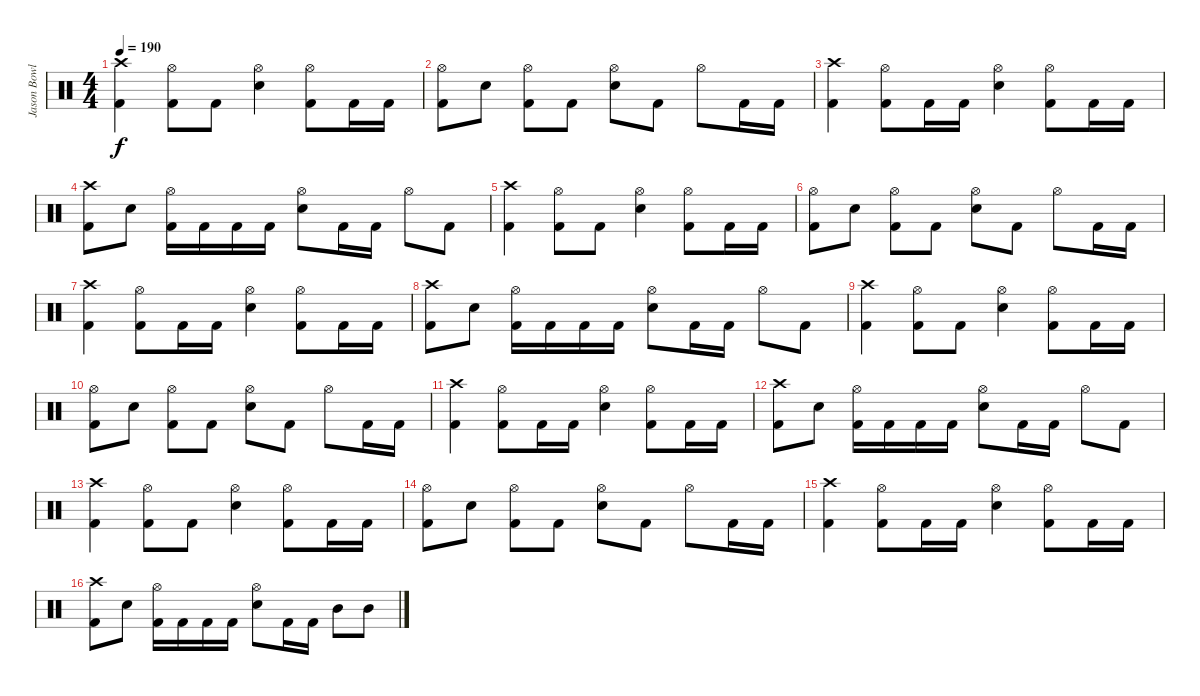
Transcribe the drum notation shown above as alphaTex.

\track ("Jason Bowld" "Jason Bowl") {instrument percussion}
\staff {score}
\articulation defaults
\ts (4 4)
\tempo 190
\clef neutral
\ks c
("Crash high (hit)" "Kick (hit) 2").4{dy f} ("Hi-Hat (open)" "Kick (hit) 2").8 "Kick (hit) 2".8 ("Hi-Hat (open)" "Snare (hit) 2").4 ("Hi-Hat (open)" "Kick (hit) 2").8 "Kick (hit) 2".16 "Kick (hit) 2".16 |
("Hi-Hat (open)" "Kick (hit) 2").8 "Snare (hit) 2".8 ("Hi-Hat (open)" "Kick (hit) 2").8 "Kick (hit) 2".8 ("Hi-Hat (open)" "Snare (hit) 2").8 "Kick (hit) 2".8 "Hi-Hat (open)".8 "Kick (hit) 2".16 "Kick (hit) 2".16 |
("Crash high (hit)" "Kick (hit) 2").4 ("Hi-Hat (open)" "Kick (hit) 2").8 "Kick (hit) 2".16 "Kick (hit) 2".16 ("Hi-Hat (open)" "Snare (hit) 2").4 ("Hi-Hat (open)" "Kick (hit) 2").8 "Kick (hit) 2".16 "Kick (hit) 2".16 |
("Crash high (hit)" "Kick (hit) 2").8 "Snare (hit) 2".8 ("Hi-Hat (open)" "Kick (hit) 2").16 "Kick (hit) 2".16 "Kick (hit) 2".16 "Kick (hit) 2".16 ("Hi-Hat (open)" "Snare (hit) 2").8 "Kick (hit) 2".16 "Kick (hit) 2".16 "Hi-Hat (open)".8 "Kick (hit) 2".8 |
("Crash high (hit)" "Kick (hit) 2").4 ("Hi-Hat (open)" "Kick (hit) 2").8 "Kick (hit) 2".8 ("Hi-Hat (open)" "Snare (hit) 2").4 ("Hi-Hat (open)" "Kick (hit) 2").8 "Kick (hit) 2".16 "Kick (hit) 2".16 |
("Hi-Hat (open)" "Kick (hit) 2").8 "Snare (hit) 2".8 ("Hi-Hat (open)" "Kick (hit) 2").8 "Kick (hit) 2".8 ("Hi-Hat (open)" "Snare (hit) 2").8 "Kick (hit) 2".8 "Hi-Hat (open)".8 "Kick (hit) 2".16 "Kick (hit) 2".16 |
("Crash high (hit)" "Kick (hit) 2").4 ("Hi-Hat (open)" "Kick (hit) 2").8 "Kick (hit) 2".16 "Kick (hit) 2".16 ("Hi-Hat (open)" "Snare (hit) 2").4 ("Hi-Hat (open)" "Kick (hit) 2").8 "Kick (hit) 2".16 "Kick (hit) 2".16 |
("Crash high (hit)" "Kick (hit) 2").8 "Snare (hit) 2".8 ("Hi-Hat (open)" "Kick (hit) 2").16 "Kick (hit) 2".16 "Kick (hit) 2".16 "Kick (hit) 2".16 ("Hi-Hat (open)" "Snare (hit) 2").8 "Kick (hit) 2".16 "Kick (hit) 2".16 "Hi-Hat (open)".8 "Kick (hit) 2".8 |
("Crash high (hit)" "Kick (hit) 2").4 ("Hi-Hat (open)" "Kick (hit) 2").8 "Kick (hit) 2".8 ("Hi-Hat (open)" "Snare (hit) 2").4 ("Hi-Hat (open)" "Kick (hit) 2").8 "Kick (hit) 2".16 "Kick (hit) 2".16 |
("Hi-Hat (open)" "Kick (hit) 2").8 "Snare (hit) 2".8 ("Hi-Hat (open)" "Kick (hit) 2").8 "Kick (hit) 2".8 ("Hi-Hat (open)" "Snare (hit) 2").8 "Kick (hit) 2".8 "Hi-Hat (open)".8 "Kick (hit) 2".16 "Kick (hit) 2".16 |
("Crash high (hit)" "Kick (hit) 2").4 ("Hi-Hat (open)" "Kick (hit) 2").8 "Kick (hit) 2".16 "Kick (hit) 2".16 ("Hi-Hat (open)" "Snare (hit) 2").4 ("Hi-Hat (open)" "Kick (hit) 2").8 "Kick (hit) 2".16 "Kick (hit) 2".16 |
("Crash high (hit)" "Kick (hit) 2").8 "Snare (hit) 2".8 ("Hi-Hat (open)" "Kick (hit) 2").16 "Kick (hit) 2".16 "Kick (hit) 2".16 "Kick (hit) 2".16 ("Hi-Hat (open)" "Snare (hit) 2").8 "Kick (hit) 2".16 "Kick (hit) 2".16 "Hi-Hat (open)".8 "Kick (hit) 2".8 |
("Crash high (hit)" "Kick (hit) 2").4 ("Hi-Hat (open)" "Kick (hit) 2").8 "Kick (hit) 2".8 ("Hi-Hat (open)" "Snare (hit) 2").4 ("Hi-Hat (open)" "Kick (hit) 2").8 "Kick (hit) 2".16 "Kick (hit) 2".16 |
("Hi-Hat (open)" "Kick (hit) 2").8 "Snare (hit) 2".8 ("Hi-Hat (open)" "Kick (hit) 2").8 "Kick (hit) 2".8 ("Hi-Hat (open)" "Snare (hit) 2").8 "Kick (hit) 2".8 "Hi-Hat (open)".8 "Kick (hit) 2".16 "Kick (hit) 2".16 |
("Crash high (hit)" "Kick (hit) 2").4 ("Hi-Hat (open)" "Kick (hit) 2").8 "Kick (hit) 2".16 "Kick (hit) 2".16 ("Hi-Hat (open)" "Snare (hit) 2").4 ("Hi-Hat (open)" "Kick (hit) 2").8 "Kick (hit) 2".16 "Kick (hit) 2".16 |
("Crash high (hit)" "Kick (hit) 2").8 "Snare (hit) 2".8 ("Hi-Hat (open)" "Kick (hit) 2").16 "Kick (hit) 2".16 "Kick (hit) 2".16 "Kick (hit) 2".16 ("Hi-Hat (open)" "Snare (hit) 2").8 "Kick (hit) 2".16 "Kick (hit) 2".16 "Mid Tom (hit)".8 "Mid Tom (hit)".8
